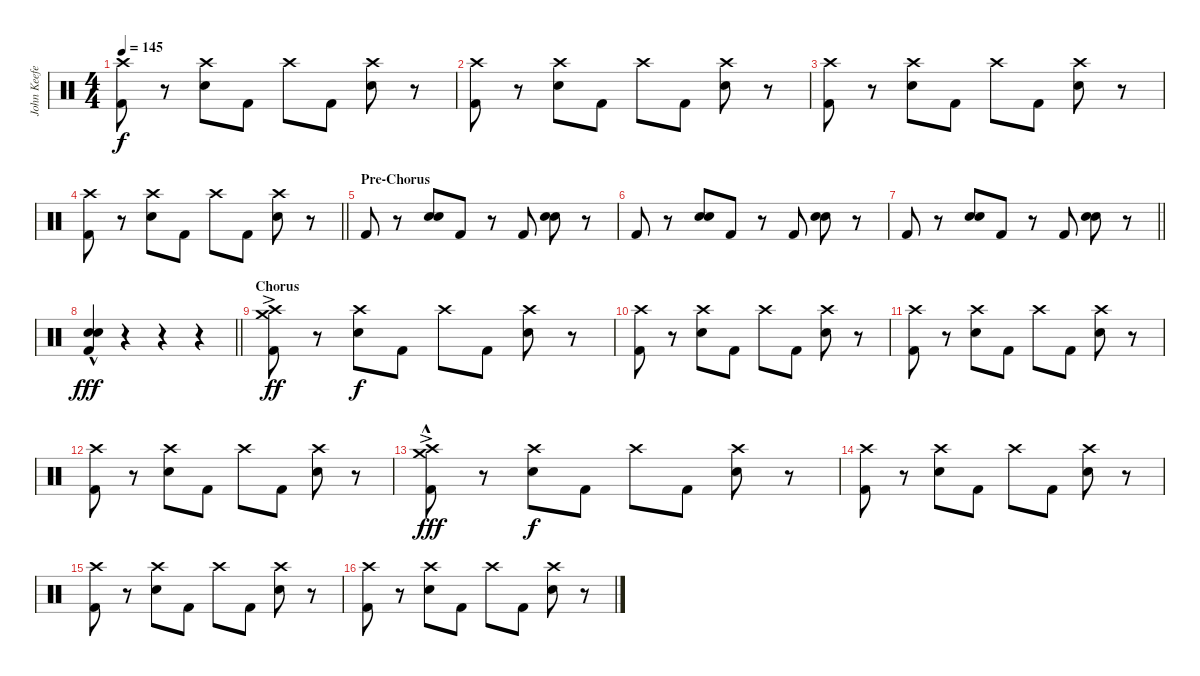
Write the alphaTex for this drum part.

\track ("John Keefe (Percussion)" "John Keefe") {instrument percussion}
\staff {score}
\articulation defaults
\ts (4 4)
\tempo 145
\clef neutral
\ks c
("Crash high (hit)" "Kick (hit) 2").8{dy f} r.8 ("Crash high (hit)" "Electric Snare (hit)").8 "Kick (hit) 2".8 "Crash high (hit)".8 "Kick (hit) 2".8 ("Crash high (hit)" "Electric Snare (hit)").8 r.8 |
("Crash high (hit)" "Kick (hit) 2").8 r.8 ("Crash high (hit)" "Electric Snare (hit)").8 "Kick (hit) 2".8 "Crash high (hit)".8 "Kick (hit) 2".8 ("Crash high (hit)" "Electric Snare (hit)").8 r.8 |
("Crash high (hit)" "Kick (hit) 2").8 r.8 ("Crash high (hit)" "Electric Snare (hit)").8 "Kick (hit) 2".8 "Crash high (hit)".8 "Kick (hit) 2".8 ("Crash high (hit)" "Electric Snare (hit)").8 r.8 |
\barLineRight lightlight
("Crash high (hit)" "Kick (hit) 2").8 r.8 ("Crash high (hit)" "Electric Snare (hit)").8 "Kick (hit) 2".8 "Crash high (hit)".8 "Kick (hit) 2".8 ("Crash high (hit)" "Electric Snare (hit)").8 r.8 |
\section ("" "Pre-Chorus")
"Kick (hit) 2".8 r.8 ("Snare (hit) 2" "Electric Snare (hit)").8 "Kick (hit) 2".8 r.8 "Kick (hit) 2".8 ("Snare (hit) 2" "Electric Snare (hit)").8 r.8 |
"Kick (hit) 2".8 r.8 ("Snare (hit) 2" "Electric Snare (hit)").8 "Kick (hit) 2".8 r.8 "Kick (hit) 2".8 ("Snare (hit) 2" "Electric Snare (hit)").8 r.8 |
\barLineRight lightlight "Kick (hit) 2".8
r.8 ("Snare (hit) 2" "Electric Snare (hit)").8 "Kick (hit) 2".8 r.8 "Kick (hit) 2".8 ("Snare (hit) 2" "Electric Snare (hit)").8 r.8 |
\section ("" "")
\barLineRight lightlight
("Snare (hit) 2" "Kick (hit) 2" "Electric Snare (hit)"{hac}).4{dy fff} r.4 r.4 r.4 |
\section ("" "Chorus")
("Crash high (hit)"{ac} "Crash medium (hit)" "Kick (hit) 2").8{dy ff} r.8 ("Crash high (hit)" "Electric Snare (hit)").8{dy f} "Kick (hit) 2".8 "Crash high (hit)".8 "Kick (hit) 2".8 ("Crash high (hit)" "Electric Snare (hit)").8 r.8 |
("Crash high (hit)" "Kick (hit) 2").8 r.8 ("Crash high (hit)" "Electric Snare (hit)").8 "Kick (hit) 2".8 "Crash high (hit)".8 "Kick (hit) 2".8 ("Crash high (hit)" "Electric Snare (hit)").8 r.8 |
("Crash high (hit)" "Kick (hit) 2").8 r.8 ("Crash high (hit)" "Electric Snare (hit)").8 "Kick (hit) 2".8 "Crash high (hit)".8 "Kick (hit) 2".8 ("Crash high (hit)" "Electric Snare (hit)").8 r.8 |
("Crash high (hit)" "Kick (hit) 2").8 r.8 ("Crash high (hit)" "Electric Snare (hit)").8 "Kick (hit) 2".8 "Crash high (hit)".8 "Kick (hit) 2".8 ("Crash high (hit)" "Electric Snare (hit)").8 r.8 |
("Crash high (hit)"{ac} "Crash medium (hit)" "Kick (hit) 2"{hac}).8{dy fff} r.8 ("Crash high (hit)" "Electric Snare (hit)").8{dy f} "Kick (hit) 2".8 "Crash high (hit)".8 "Kick (hit) 2".8 ("Crash high (hit)" "Electric Snare (hit)").8 r.8 |
("Crash high (hit)" "Kick (hit) 2").8 r.8 ("Crash high (hit)" "Electric Snare (hit)").8 "Kick (hit) 2".8 "Crash high (hit)".8 "Kick (hit) 2".8 ("Crash high (hit)" "Electric Snare (hit)").8 r.8 |
("Crash high (hit)" "Kick (hit) 2").8 r.8 ("Crash high (hit)" "Electric Snare (hit)").8 "Kick (hit) 2".8 "Crash high (hit)".8 "Kick (hit) 2".8 ("Crash high (hit)" "Electric Snare (hit)").8 r.8 |
("Crash high (hit)" "Kick (hit) 2").8 r.8 ("Crash high (hit)" "Electric Snare (hit)").8 "Kick (hit) 2".8 "Crash high (hit)".8 "Kick (hit) 2".8 ("Crash high (hit)" "Electric Snare (hit)").8 r.8
